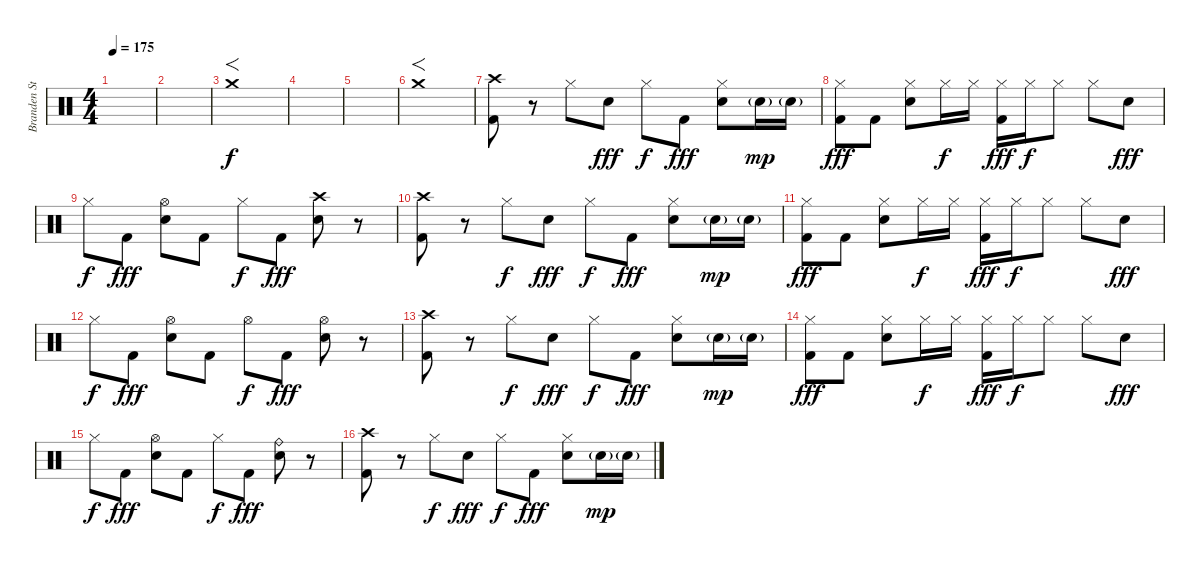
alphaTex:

\track ("Branden Steineckert (Drums)" "Branden St") {instrument percussion}
\staff {score}
\articulation defaults
\ts (4 4)
\tempo 175
\clef neutral
\ks c
|
|
"Crash medium (hit)".1{f} |
|
|
"Crash medium (hit)".1{f} |
("Kick (hit) 2" "Crash high (hit)").8 r.8 "Hi-Hat (closed)".8{dy f} "Electric Snare (hit)".8{dy fff} "Hi-Hat (closed)".8{dy f} "Kick (hit) 2".8{dy fff} ("Electric Snare (hit)" "Hi-Hat (closed)").8 "Electric Snare (hit)"{g}.16{dy mp} "Electric Snare (hit)"{g}.16 |
("Kick (hit) 2" "Hi-Hat (closed)").8{dy fff} "Kick (hit) 2".8 ("Electric Snare (hit)" "Hi-Hat (closed)").8 "Hi-Hat (closed)".16{dy f} "Hi-Hat (closed)".16 ("Kick (hit) 2" "Hi-Hat (closed)").16{dy fff} "Hi-Hat (closed)".16{dy f} "Hi-Hat (closed)".8 "Hi-Hat (closed)".8 "Electric Snare (hit)".8{dy fff} |
"Hi-Hat (closed)".8{dy f} "Kick (hit) 2".8{dy fff} ("Electric Snare (hit)" "Hi-Hat (open)").8 "Kick (hit) 2".8 "Hi-Hat (closed)".8{dy f} "Kick (hit) 2".8{dy fff} ("Electric Snare (hit)" "Crash high (hit)").8 r.8 |
("Kick (hit) 2" "Crash high (hit)").8 r.8 "Hi-Hat (closed)".8{dy f} "Electric Snare (hit)".8{dy fff} "Hi-Hat (closed)".8{dy f} "Kick (hit) 2".8{dy fff} ("Electric Snare (hit)" "Hi-Hat (closed)").8 "Electric Snare (hit)"{g}.16{dy mp} "Electric Snare (hit)"{g}.16 |
("Kick (hit) 2" "Hi-Hat (closed)").8{dy fff} "Kick (hit) 2".8 ("Electric Snare (hit)" "Hi-Hat (closed)").8 "Hi-Hat (closed)".16{dy f} "Hi-Hat (closed)".16 ("Kick (hit) 2" "Hi-Hat (closed)").16{dy fff} "Hi-Hat (closed)".16{dy f} "Hi-Hat (closed)".8 "Hi-Hat (closed)".8 "Electric Snare (hit)".8{dy fff} |
"Hi-Hat (closed)".8{dy f} "Kick (hit) 2".8{dy fff} ("Electric Snare (hit)" "Hi-Hat (open)").8 "Kick (hit) 2".8 "Hi-Hat (open)".8{dy f} "Kick (hit) 2".8{dy fff} ("Electric Snare (hit)" "Hi-Hat (open)").8 r.8 |
("Kick (hit) 2" "Crash high (hit)").8 r.8 "Hi-Hat (closed)".8{dy f} "Electric Snare (hit)".8{dy fff} "Hi-Hat (closed)".8{dy f} "Kick (hit) 2".8{dy fff} ("Electric Snare (hit)" "Hi-Hat (closed)").8 "Electric Snare (hit)"{g}.16{dy mp} "Electric Snare (hit)"{g}.16 |
("Kick (hit) 2" "Hi-Hat (closed)").8{dy fff} "Kick (hit) 2".8 ("Electric Snare (hit)" "Hi-Hat (closed)").8 "Hi-Hat (closed)".16{dy f} "Hi-Hat (closed)".16 ("Kick (hit) 2" "Hi-Hat (closed)").16{dy fff} "Hi-Hat (closed)".16{dy f} "Hi-Hat (closed)".8 "Hi-Hat (closed)".8 "Electric Snare (hit)".8{dy fff} |
"Hi-Hat (closed)".8{dy f} "Kick (hit) 2".8{dy fff} ("Electric Snare (hit)" "Hi-Hat (open)").8 "Kick (hit) 2".8 "Hi-Hat (closed)".8{dy f} "Kick (hit) 2".8{dy fff} ("Electric Snare (hit)" "Ride (bell)").8 r.8 |
("Kick (hit) 2" "Crash high (hit)").8 r.8 "Hi-Hat (closed)".8{dy f} "Electric Snare (hit)".8{dy fff} "Hi-Hat (closed)".8{dy f} "Kick (hit) 2".8{dy fff} ("Electric Snare (hit)" "Hi-Hat (closed)").8 "Electric Snare (hit)"{g}.16{dy mp} "Electric Snare (hit)"{g}.16
